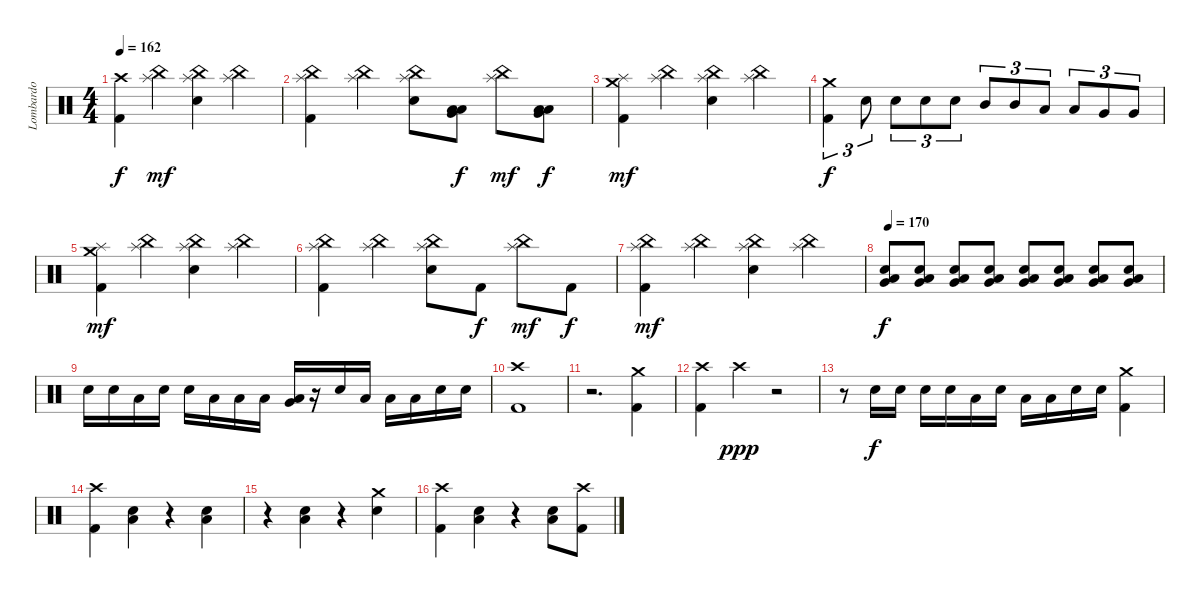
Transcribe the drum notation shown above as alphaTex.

\track ("Lombardo" "Lombardo") {instrument percussion}
\staff {score}
\articulation defaults
\ts (4 4)
\tempo 162
\clef neutral
\ks c
("Crash high (hit)" "Kick (hit) 2").4{dy f} ("China (hit)" "Splash (hit)").4{dy mf} ("China (hit)" "Splash (hit)" "Electric Snare (hit)").4 ("China (hit)" "Splash (hit)").4 |
("China (hit)" "Splash (hit)" "Kick (hit) 2").4 ("China (hit)" "Splash (hit)").4 ("China (hit)" "Splash (hit)" "Electric Snare (hit)").8 ("Low Floor Tom (hit)" "Very Low Tom (hit)" "Low Tom (hit)").8{dy f} ("China (hit)" "Splash (hit)").8{dy mf} ("Low Tom (hit)" "Low Floor Tom (hit)" "Very Low Tom (hit)").8{dy f} |
("Crash medium (hit)" "Splash (hit)" "Kick (hit) 2").4{dy mf} ("China (hit)" "Splash (hit)").4 ("China (hit)" "Splash (hit)" "Electric Snare (hit)").4 ("China (hit)" "Splash (hit)").4 |
("Crash medium (hit)" "Kick (hit) 2").4{tu (3 2) dy f} "Electric Snare (hit)".8{tu (3 2)} "Electric Snare (hit)".8{tu (3 2)} "Electric Snare (hit)".8{tu (3 2)} "Electric Snare (hit)".8{tu (3 2)} "Mid Tom (hit)".8{tu (3 2)} "Mid Tom (hit)".8{tu (3 2)} "Low Tom (hit)".8{tu (3 2)} "Low Tom (hit)".8{tu (3 2)} "Very Low Tom (hit)".8{tu (3 2)} "Very Low Tom (hit)".8{tu (3 2)} |
("Crash medium (hit)" "Splash (hit)" "Kick (hit) 2").4{dy mf} ("China (hit)" "Splash (hit)").4 ("China (hit)" "Splash (hit)" "Electric Snare (hit)").4 ("China (hit)" "Splash (hit)").4 |
("China (hit)" "Splash (hit)" "Kick (hit) 2").4 ("China (hit)" "Splash (hit)").4 ("China (hit)" "Splash (hit)" "Electric Snare (hit)").8 "Kick (hit) 2".8{dy f} ("China (hit)" "Splash (hit)").8{dy mf} "Kick (hit) 2".8{dy f} |
("China (hit)" "Splash (hit)" "Kick (hit) 2").4{dy mf} ("China (hit)" "Splash (hit)").4 ("China (hit)" "Splash (hit)" "Electric Snare (hit)").4 ("China (hit)" "Splash (hit)").4 |
\tempo 170
("Very Low Tom (hit)" "Low Floor Tom (hit)" "Electric Snare (hit)").8{dy f} ("Very Low Tom (hit)" "Low Floor Tom (hit)" "Electric Snare (hit)").8 ("Very Low Tom (hit)" "Low Floor Tom (hit)" "Electric Snare (hit)").8 ("Very Low Tom (hit)" "Low Floor Tom (hit)" "Electric Snare (hit)").8 ("Very Low Tom (hit)" "Low Floor Tom (hit)" "Electric Snare (hit)").8 ("Very Low Tom (hit)" "Low Floor Tom (hit)" "Electric Snare (hit)").8 ("Very Low Tom (hit)" "Low Floor Tom (hit)" "Electric Snare (hit)").8 ("Very Low Tom (hit)" "Low Floor Tom (hit)" "Electric Snare (hit)").8 |
"Electric Snare (hit)".16 "Electric Snare (hit)".16 "Low Tom (hit)".16 "Electric Snare (hit)".16 "Electric Snare (hit)".16 "Low Tom (hit)".16 "Low Tom (hit)".16 "Low Tom (hit)".16 ("Low Tom (hit)" "Very Low Tom (hit)").16 r.16 "Electric Snare (hit)".16 "Low Tom (hit)".16 "Low Tom (hit)".16 "Low Tom (hit)".16 "Electric Snare (hit)".16 "Electric Snare (hit)".16 |
("Crash high (hit)" "Kick (hit) 2").1 |
r.2{d} ("Crash medium (hit)" "Kick (hit) 2").4 |
("Crash high (hit)" "Kick (hit) 2").4 "Crash high (hit)".4{dy ppp} r.2 |
r.8 "Electric Snare (hit)".16{dy f} "Electric Snare (hit)".16 "Electric Snare (hit)".16 "Electric Snare (hit)".16 "Low Tom (hit)".16 "Electric Snare (hit)".16 "Low Tom (hit)".16 "Low Tom (hit)".16 "Electric Snare (hit)".16 "Electric Snare (hit)".16 ("Crash medium (hit)" "Kick (hit) 2").4 |
("Crash high (hit)" "Kick (hit) 2").4 ("Low Tom (hit)" "Electric Snare (hit)").4 r.4 ("Low Tom (hit)" "Electric Snare (hit)").4 |
r.4 ("Low Tom (hit)" "Electric Snare (hit)").4 r.4 ("Crash medium (hit)" "Electric Snare (hit)").4 |
("Crash high (hit)" "Kick (hit) 2").4 ("Low Tom (hit)" "Electric Snare (hit)").4 r.4 ("Low Tom (hit)" "Electric Snare (hit)").8 ("Crash high (hit)" "Kick (hit) 2").8
